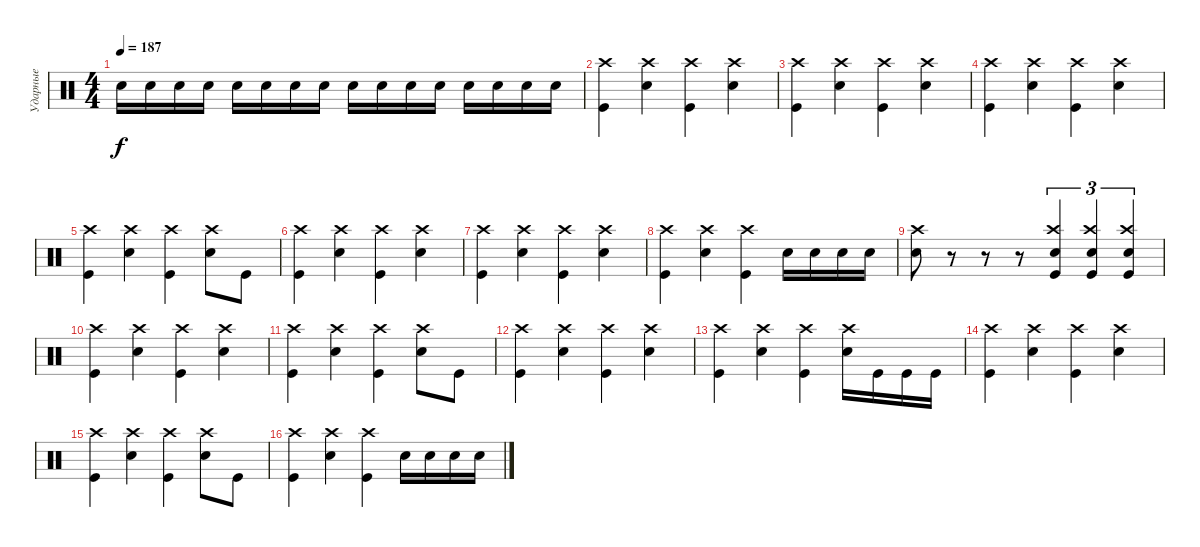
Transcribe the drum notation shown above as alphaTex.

\track ("Ударные" "Ударные") {instrument percussion}
\staff {score}
\articulation defaults
\ts (4 4)
\tempo 187
\clef neutral
\ks c "Electric Snare (hit)".16{dy f} "Electric Snare (hit)".16 "Electric Snare (hit)".16 "Electric Snare (hit)".16 "Electric Snare (hit)".16 "Electric Snare (hit)".16 "Electric Snare (hit)".16 "Electric Snare (hit)".16 "Electric Snare (hit)".16 "Electric Snare (hit)".16 "Electric Snare (hit)".16 "Electric Snare (hit)".16 "Electric Snare (hit)".16 "Electric Snare (hit)".16 "Electric Snare (hit)".16 "Electric Snare (hit)".16
|
("Crash high (hit)" "Kick (hit)").4 ("Crash high (hit)" "Electric Snare (hit)").4 ("Crash high (hit)" "Kick (hit)").4 ("Crash high (hit)" "Electric Snare (hit)").4 |
("Crash high (hit)" "Kick (hit)").4 ("Crash high (hit)" "Electric Snare (hit)").4 ("Crash high (hit)" "Kick (hit)").4 ("Crash high (hit)" "Electric Snare (hit)").4 |
("Crash high (hit)" "Kick (hit)").4 ("Crash high (hit)" "Electric Snare (hit)").4 ("Crash high (hit)" "Kick (hit)").4 ("Crash high (hit)" "Electric Snare (hit)").4 |
("Crash high (hit)" "Kick (hit)").4 ("Crash high (hit)" "Electric Snare (hit)").4 ("Crash high (hit)" "Kick (hit)").4 ("Crash high (hit)" "Electric Snare (hit)").8 "Kick (hit)".8 |
("Crash high (hit)" "Kick (hit)").4 ("Crash high (hit)" "Electric Snare (hit)").4 ("Crash high (hit)" "Kick (hit)").4 ("Crash high (hit)" "Electric Snare (hit)").4 |
("Crash high (hit)" "Kick (hit)").4 ("Crash high (hit)" "Electric Snare (hit)").4 ("Crash high (hit)" "Kick (hit)").4 ("Crash high (hit)" "Electric Snare (hit)").4 |
("Crash high (hit)" "Kick (hit)").4 ("Crash high (hit)" "Electric Snare (hit)").4 ("Crash high (hit)" "Kick (hit)").4 "Electric Snare (hit)".16 "Electric Snare (hit)".16 "Electric Snare (hit)".16 "Electric Snare (hit)".16 |
("Crash high (hit)" "Electric Snare (hit)").8 r.8 r.8 r.8 ("Electric Snare (hit)" "Crash high (hit)" "Kick (hit)").4{tu (3 2)} ("Electric Snare (hit)" "Crash high (hit)" "Kick (hit)").4{tu (3 2)} ("Electric Snare (hit)" "Crash high (hit)" "Kick (hit)").4{tu (3 2)} |
("Crash high (hit)" "Kick (hit)").4 ("Crash high (hit)" "Electric Snare (hit)").4 ("Crash high (hit)" "Kick (hit)").4 ("Crash high (hit)" "Electric Snare (hit)").4 |
("Crash high (hit)" "Kick (hit)").4 ("Crash high (hit)" "Electric Snare (hit)").4 ("Crash high (hit)" "Kick (hit)").4 ("Crash high (hit)" "Electric Snare (hit)").8 "Kick (hit)".8 |
("Crash high (hit)" "Kick (hit)").4 ("Crash high (hit)" "Electric Snare (hit)").4 ("Crash high (hit)" "Kick (hit)").4 ("Crash high (hit)" "Electric Snare (hit)").4 |
("Crash high (hit)" "Kick (hit)").4 ("Crash high (hit)" "Electric Snare (hit)").4 ("Crash high (hit)" "Kick (hit)").4 ("Crash high (hit)" "Electric Snare (hit)").16 "Kick (hit)".16 "Kick (hit)".16 "Kick (hit)".16 |
("Crash high (hit)" "Kick (hit)").4 ("Crash high (hit)" "Electric Snare (hit)").4 ("Crash high (hit)" "Kick (hit)").4 ("Crash high (hit)" "Electric Snare (hit)").4 |
("Crash high (hit)" "Kick (hit)").4 ("Crash high (hit)" "Electric Snare (hit)").4 ("Crash high (hit)" "Kick (hit)").4 ("Crash high (hit)" "Electric Snare (hit)").8 "Kick (hit)".8 |
("Crash high (hit)" "Kick (hit)").4 ("Crash high (hit)" "Electric Snare (hit)").4 ("Crash high (hit)" "Kick (hit)").4 "Electric Snare (hit)".16 "Electric Snare (hit)".16 "Electric Snare (hit)".16 "Electric Snare (hit)".16
